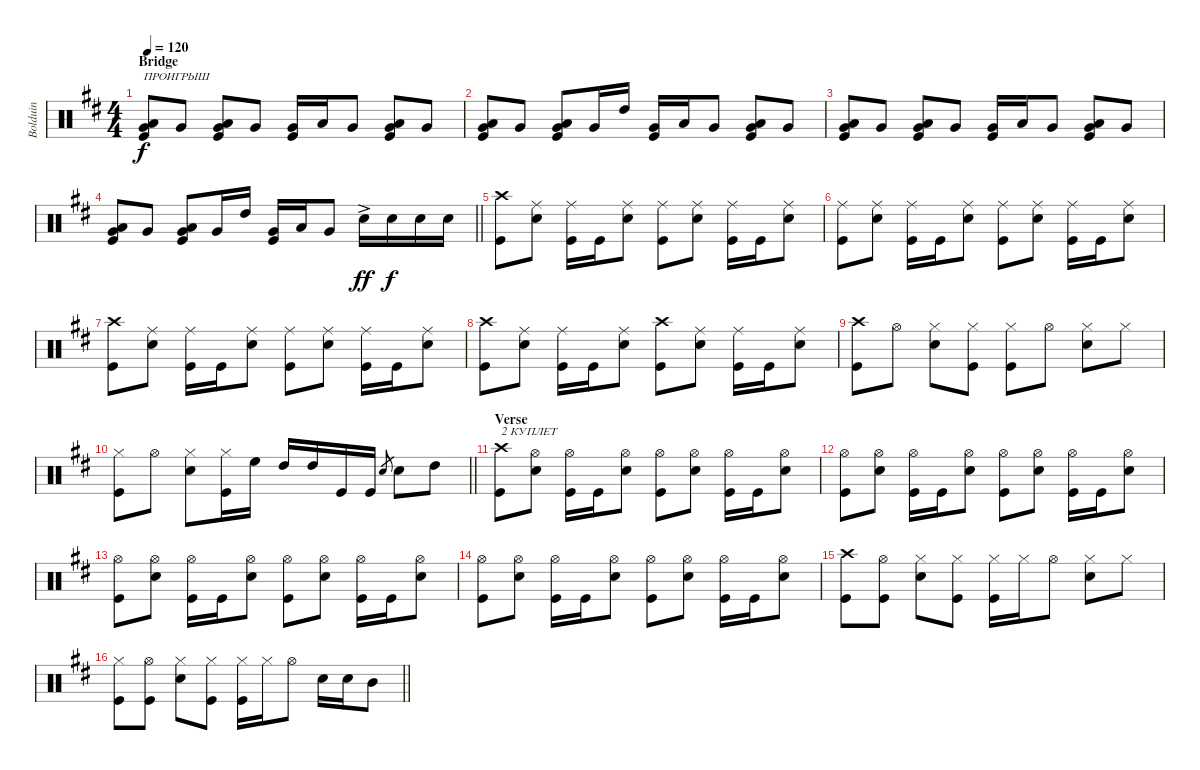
\track ("Bolduin" "Bolduin") {instrument percussion}
\staff {score}
\articulation defaults
\ts (4 4)
\section ("" "Bridge")
\tempo 120
\clef neutral
\ks bminor
("Kick (hit)" "Low Tom (hit)" "Very Low Tom (hit)").8{txt "ПРОИГРЫШ" dy f} "Very Low Tom (hit)".8 ("Very Low Tom (hit)" "Kick (hit)" "Low Tom (hit)").8 "Very Low Tom (hit)".8 ("Kick (hit)" "Very Low Tom (hit)").16 "Low Tom (hit)".16 "Very Low Tom (hit)".8 ("Kick (hit)" "Very Low Tom (hit)" "Low Tom (hit)").8 "Very Low Tom (hit)".8 |
("Kick (hit)" "Low Tom (hit)" "Very Low Tom (hit)").8 "Very Low Tom (hit)".8 ("Very Low Tom (hit)" "Kick (hit)" "Low Tom (hit)").8 "Very Low Tom (hit)".16 "High Tom (hit)".16 ("Kick (hit)" "Very Low Tom (hit)").16 "Low Tom (hit)".16 "Very Low Tom (hit)".8 ("Kick (hit)" "Very Low Tom (hit)" "Low Tom (hit)").8 "Very Low Tom (hit)".8 |
("Kick (hit)" "Low Tom (hit)" "Very Low Tom (hit)").8 "Very Low Tom (hit)".8 ("Very Low Tom (hit)" "Kick (hit)" "Low Tom (hit)").8 "Very Low Tom (hit)".8 ("Kick (hit)" "Very Low Tom (hit)").16 "Low Tom (hit)".16 "Very Low Tom (hit)".8 ("Kick (hit)" "Very Low Tom (hit)" "Low Tom (hit)").8 "Very Low Tom (hit)".8 |
\barLineRight lightlight
("Kick (hit)" "Low Tom (hit)" "Very Low Tom (hit)").8 "Very Low Tom (hit)".8 ("Very Low Tom (hit)" "Kick (hit)" "Low Tom (hit)").8 "Very Low Tom (hit)".16 "High Tom (hit)".16 ("Kick (hit)" "Very Low Tom (hit)").16 "Low Tom (hit)".16 "Very Low Tom (hit)".8 "Snare (hit) 2"{ac}.16{dy ff} "Snare (hit) 2".16{dy f} "Snare (hit) 2".16 "Snare (hit) 2".16 |
("Kick (hit)" "Crash high (hit)").8 ("Snare (hit) 2" "Ride (middle)").8 ("Kick (hit)" "Ride (middle)").16 "Kick (hit)".16 ("Snare (hit) 2" "Ride (middle)").8 ("Kick (hit)" "Ride (middle)").8 ("Snare (hit) 2" "Ride (middle)").8 ("Kick (hit)" "Ride (middle)").16 "Kick (hit)".16 ("Snare (hit) 2" "Ride (middle)").8 |
("Kick (hit)" "Ride (middle)").8 ("Snare (hit) 2" "Ride (middle)").8 ("Kick (hit)" "Ride (middle)").16 "Kick (hit)".16 ("Snare (hit) 2" "Ride (middle)").8 ("Kick (hit)" "Ride (middle)").8 ("Snare (hit) 2" "Ride (middle)").8 ("Kick (hit)" "Ride (middle)").16 "Kick (hit)".16 ("Snare (hit) 2" "Ride (middle)").8 |
("Kick (hit)" "Crash high (hit)").8 ("Snare (hit) 2" "Ride (middle)").8 ("Kick (hit)" "Ride (middle)").16 "Kick (hit)".16 ("Snare (hit) 2" "Ride (middle)").8 ("Kick (hit)" "Ride (middle)").8 ("Snare (hit) 2" "Ride (middle)").8 ("Kick (hit)" "Ride (middle)").16 "Kick (hit)".16 ("Snare (hit) 2" "Ride (middle)").8 |
("Kick (hit)" "Crash high (hit)").8 ("Snare (hit) 2" "Ride (middle)").8 ("Kick (hit)" "Ride (middle)").16 "Kick (hit)".16 ("Snare (hit) 2" "Ride (middle)").8 ("Kick (hit)" "Crash high (hit)").8 ("Snare (hit) 2" "Ride (middle)").8 ("Kick (hit)" "Ride (middle)").16 "Kick (hit)".16 ("Snare (hit) 2" "Ride (middle)").8 |
("Kick (hit)" "Crash high (hit)").8 "Hi-Hat (open)".8 ("Hi-Hat (closed)" "Snare (hit) 2").8 ("Hi-Hat (closed)" "Kick (hit)").8 ("Kick (hit)" "Hi-Hat (closed)").8 "Hi-Hat (open)".8 ("Hi-Hat (closed)" "Snare (hit) 2").8 "Hi-Hat (closed)".8 |
\barLineRight lightlight
("Kick (hit)" "Hi-Hat (closed)").8 "Hi-Hat (open)".8 ("Hi-Hat (closed)" "Snare (hit) 2").8 ("Hi-Hat (closed)" "Kick (hit)").16 "High Floor Tom (hit)".16 "High Tom (hit)".16 "High Tom (hit)".16 "Kick (hit)".16 "Kick (hit)".16 "Snare (hit) 2".8{gr} "Snare (hit) 2".8 "High Tom (hit)".8 |
\section ("" "Verse")
("Kick (hit)" "Crash high (hit)").8{txt "2 КУПЛЕТ"} ("Hi-Hat (open)" "Snare (hit) 2").8 ("Kick (hit)" "Hi-Hat (open)").16 "Kick (hit)".16 ("Snare (hit) 2" "Hi-Hat (open)").8 ("Kick (hit)" "Hi-Hat (open)").8 ("Hi-Hat (open)" "Snare (hit) 2").8 ("Kick (hit)" "Hi-Hat (open)").16 "Kick (hit)".16 ("Snare (hit) 2" "Hi-Hat (open)").8 |
("Kick (hit)" "Hi-Hat (open)").8 ("Hi-Hat (open)" "Snare (hit) 2").8 ("Kick (hit)" "Hi-Hat (open)").16 "Kick (hit)".16 ("Snare (hit) 2" "Hi-Hat (open)").8 ("Kick (hit)" "Hi-Hat (open)").8 ("Hi-Hat (open)" "Snare (hit) 2").8 ("Kick (hit)" "Hi-Hat (open)").16 "Kick (hit)".16 ("Snare (hit) 2" "Hi-Hat (open)").8 |
("Kick (hit)" "Hi-Hat (open)").8 ("Hi-Hat (open)" "Snare (hit) 2").8 ("Kick (hit)" "Hi-Hat (open)").16 "Kick (hit)".16 ("Snare (hit) 2" "Hi-Hat (open)").8 ("Kick (hit)" "Hi-Hat (open)").8 ("Hi-Hat (open)" "Snare (hit) 2").8 ("Kick (hit)" "Hi-Hat (open)").16 "Kick (hit)".16 ("Snare (hit) 2" "Hi-Hat (open)").8 |
("Kick (hit)" "Hi-Hat (open)").8 ("Hi-Hat (open)" "Snare (hit) 2").8 ("Kick (hit)" "Hi-Hat (open)").16 "Kick (hit)".16 ("Snare (hit) 2" "Hi-Hat (open)").8 ("Kick (hit)" "Hi-Hat (open)").8 ("Hi-Hat (open)" "Snare (hit) 2").8 ("Kick (hit)" "Hi-Hat (open)").16 "Kick (hit)".16 ("Snare (hit) 2" "Hi-Hat (open)").8 |
("Kick (hit)" "Crash high (hit)").8 ("Hi-Hat (open)" "Kick (hit)").8 ("Hi-Hat (closed)" "Snare (hit) 2").8 ("Hi-Hat (closed)" "Kick (hit)").8 ("Kick (hit)" "Hi-Hat (closed)").16 "Hi-Hat (closed)".16 "Hi-Hat (open)".8 ("Hi-Hat (closed)" "Snare (hit) 2").8 "Hi-Hat (closed)".8 |
\barLineRight lightlight
("Kick (hit)" "Hi-Hat (closed)").8 ("Hi-Hat (open)" "Kick (hit)").8 ("Hi-Hat (closed)" "Snare (hit) 2").8 ("Hi-Hat (closed)" "Kick (hit)").8 ("Kick (hit)" "Hi-Hat (closed)").16 "Hi-Hat (closed)".16 "Hi-Hat (open)".8 "Snare (hit) 2".16 "Snare (hit) 2".16 "Mid Tom (hit)".8
